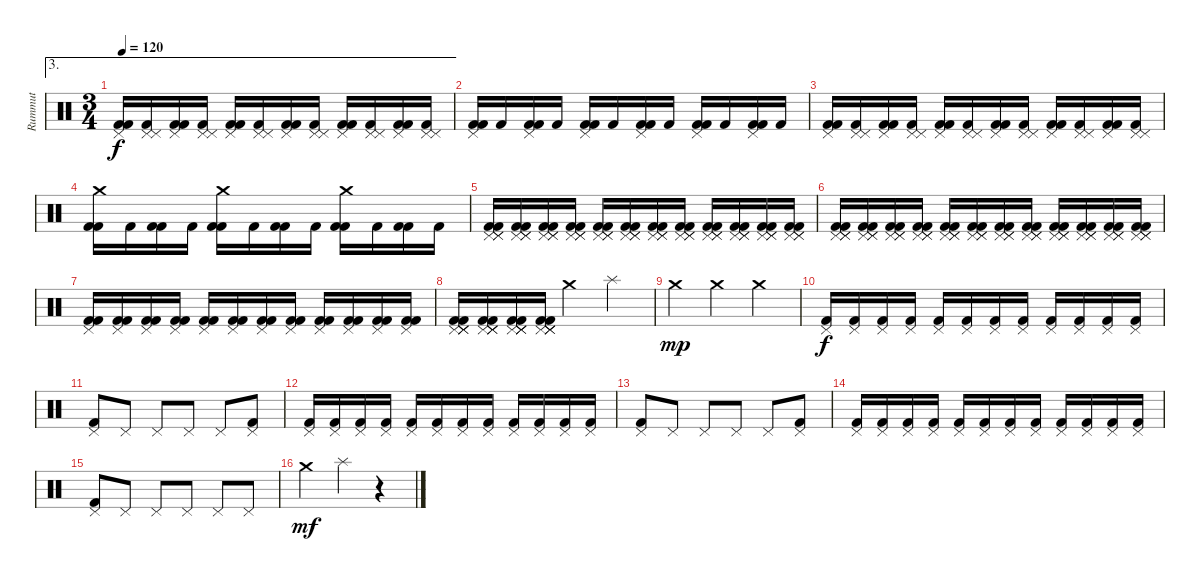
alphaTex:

\track ("Rummut" "Rummut") {instrument percussion}
\staff {score}
\articulation defaults
\ae 3
\ts (3 4)
\tempo 120
\clef neutral
\ks c
("Pedal Hi-Hat (hit)" "Kick (hit) 2" "Kick (hit) 2").16{dy f} ("Pedal Hi-Hat (hit)" "Pedal Hi-Hat (hit)" "Kick (hit) 2").16 ("Pedal Hi-Hat (hit)" "Kick (hit) 2" "Kick (hit) 2").16 ("Pedal Hi-Hat (hit)" "Pedal Hi-Hat (hit)" "Kick (hit) 2").16 ("Pedal Hi-Hat (hit)" "Kick (hit) 2" "Kick (hit) 2").16 ("Pedal Hi-Hat (hit)" "Pedal Hi-Hat (hit)" "Kick (hit) 2").16 ("Pedal Hi-Hat (hit)" "Kick (hit) 2" "Kick (hit) 2").16 ("Pedal Hi-Hat (hit)" "Pedal Hi-Hat (hit)" "Kick (hit) 2").16 ("Pedal Hi-Hat (hit)" "Kick (hit) 2" "Kick (hit) 2").16 ("Pedal Hi-Hat (hit)" "Pedal Hi-Hat (hit)" "Kick (hit) 2").16 ("Pedal Hi-Hat (hit)" "Kick (hit) 2" "Kick (hit) 2").16 ("Pedal Hi-Hat (hit)" "Pedal Hi-Hat (hit)" "Kick (hit) 2").16 |
("Pedal Hi-Hat (hit)" "Kick (hit) 2" "Kick (hit) 2").16 "Kick (hit) 2".16 ("Pedal Hi-Hat (hit)" "Kick (hit) 2" "Kick (hit) 2").16 "Kick (hit) 2".16 ("Pedal Hi-Hat (hit)" "Kick (hit) 2" "Kick (hit) 2").16 "Kick (hit) 2".16 ("Pedal Hi-Hat (hit)" "Kick (hit) 2" "Kick (hit) 2").16 "Kick (hit) 2".16 ("Pedal Hi-Hat (hit)" "Kick (hit) 2" "Kick (hit) 2").16 "Kick (hit) 2".16 ("Pedal Hi-Hat (hit)" "Kick (hit) 2" "Kick (hit) 2").16 "Kick (hit) 2".16 |
("Pedal Hi-Hat (hit)" "Kick (hit) 2" "Kick (hit) 2").16 ("Pedal Hi-Hat (hit)" "Pedal Hi-Hat (hit)" "Kick (hit) 2").16 ("Pedal Hi-Hat (hit)" "Kick (hit) 2" "Kick (hit) 2").16 ("Pedal Hi-Hat (hit)" "Pedal Hi-Hat (hit)" "Kick (hit) 2").16 ("Pedal Hi-Hat (hit)" "Kick (hit) 2" "Kick (hit) 2").16 ("Pedal Hi-Hat (hit)" "Pedal Hi-Hat (hit)" "Kick (hit) 2").16 ("Pedal Hi-Hat (hit)" "Kick (hit) 2" "Kick (hit) 2").16 ("Pedal Hi-Hat (hit)" "Pedal Hi-Hat (hit)" "Kick (hit) 2").16 ("Pedal Hi-Hat (hit)" "Kick (hit) 2" "Kick (hit) 2").16 ("Pedal Hi-Hat (hit)" "Pedal Hi-Hat (hit)" "Kick (hit) 2").16 ("Pedal Hi-Hat (hit)" "Kick (hit) 2" "Kick (hit) 2").16 ("Pedal Hi-Hat (hit)" "Pedal Hi-Hat (hit)" "Kick (hit) 2").16 |
("Crash medium (hit)" "Kick (hit) 2" "Kick (hit) 2").16 "Kick (hit) 2".16 ("Kick (hit) 2" "Kick (hit) 2").16 "Kick (hit) 2".16 ("Crash medium (hit)" "Kick (hit) 2" "Kick (hit) 2").16 "Kick (hit) 2".16 ("Kick (hit) 2" "Kick (hit) 2").16 "Kick (hit) 2".16 ("Crash medium (hit)" "Kick (hit) 2" "Kick (hit) 2").16 "Kick (hit) 2".16 ("Kick (hit) 2" "Kick (hit) 2").16 "Kick (hit) 2".16 |
("Pedal Hi-Hat (hit)" "Pedal Hi-Hat (hit)" "Pedal Hi-Hat (hit)" "Kick (hit) 2" "Kick (hit) 2").16 ("Pedal Hi-Hat (hit)" "Pedal Hi-Hat (hit)" "Pedal Hi-Hat (hit)" "Kick (hit) 2" "Kick (hit) 2").16 ("Pedal Hi-Hat (hit)" "Pedal Hi-Hat (hit)" "Pedal Hi-Hat (hit)" "Kick (hit) 2" "Kick (hit) 2").16 ("Pedal Hi-Hat (hit)" "Pedal Hi-Hat (hit)" "Pedal Hi-Hat (hit)" "Kick (hit) 2" "Kick (hit) 2").16 ("Pedal Hi-Hat (hit)" "Pedal Hi-Hat (hit)" "Pedal Hi-Hat (hit)" "Kick (hit) 2" "Kick (hit) 2").16 ("Pedal Hi-Hat (hit)" "Pedal Hi-Hat (hit)" "Pedal Hi-Hat (hit)" "Kick (hit) 2" "Kick (hit) 2").16 ("Pedal Hi-Hat (hit)" "Pedal Hi-Hat (hit)" "Pedal Hi-Hat (hit)" "Kick (hit) 2" "Kick (hit) 2").16 ("Pedal Hi-Hat (hit)" "Pedal Hi-Hat (hit)" "Pedal Hi-Hat (hit)" "Kick (hit) 2" "Kick (hit) 2").16 ("Pedal Hi-Hat (hit)" "Pedal Hi-Hat (hit)" "Pedal Hi-Hat (hit)" "Kick (hit) 2" "Kick (hit) 2").16 ("Pedal Hi-Hat (hit)" "Pedal Hi-Hat (hit)" "Pedal Hi-Hat (hit)" "Kick (hit) 2" "Kick (hit) 2").16 ("Pedal Hi-Hat (hit)" "Pedal Hi-Hat (hit)" "Pedal Hi-Hat (hit)" "Kick (hit) 2" "Kick (hit) 2").16 ("Pedal Hi-Hat (hit)" "Pedal Hi-Hat (hit)" "Pedal Hi-Hat (hit)" "Kick (hit) 2" "Kick (hit) 2").16 |
("Pedal Hi-Hat (hit)" "Pedal Hi-Hat (hit)" "Pedal Hi-Hat (hit)" "Kick (hit) 2" "Kick (hit) 2").16 ("Pedal Hi-Hat (hit)" "Pedal Hi-Hat (hit)" "Pedal Hi-Hat (hit)" "Kick (hit) 2" "Kick (hit) 2").16 ("Pedal Hi-Hat (hit)" "Pedal Hi-Hat (hit)" "Pedal Hi-Hat (hit)" "Kick (hit) 2" "Kick (hit) 2").16 ("Pedal Hi-Hat (hit)" "Pedal Hi-Hat (hit)" "Pedal Hi-Hat (hit)" "Kick (hit) 2" "Kick (hit) 2").16 ("Pedal Hi-Hat (hit)" "Pedal Hi-Hat (hit)" "Pedal Hi-Hat (hit)" "Kick (hit) 2" "Kick (hit) 2").16 ("Pedal Hi-Hat (hit)" "Pedal Hi-Hat (hit)" "Pedal Hi-Hat (hit)" "Kick (hit) 2" "Kick (hit) 2").16 ("Pedal Hi-Hat (hit)" "Pedal Hi-Hat (hit)" "Pedal Hi-Hat (hit)" "Kick (hit) 2" "Kick (hit) 2").16 ("Pedal Hi-Hat (hit)" "Pedal Hi-Hat (hit)" "Pedal Hi-Hat (hit)" "Kick (hit) 2" "Kick (hit) 2").16 ("Pedal Hi-Hat (hit)" "Pedal Hi-Hat (hit)" "Pedal Hi-Hat (hit)" "Kick (hit) 2" "Kick (hit) 2").16 ("Pedal Hi-Hat (hit)" "Pedal Hi-Hat (hit)" "Pedal Hi-Hat (hit)" "Kick (hit) 2" "Kick (hit) 2").16 ("Pedal Hi-Hat (hit)" "Pedal Hi-Hat (hit)" "Pedal Hi-Hat (hit)" "Kick (hit) 2" "Kick (hit) 2").16 ("Pedal Hi-Hat (hit)" "Pedal Hi-Hat (hit)" "Pedal Hi-Hat (hit)" "Kick (hit) 2" "Kick (hit) 2").16 |
("Pedal Hi-Hat (hit)" "Kick (hit) 2" "Kick (hit) 2").16 ("Pedal Hi-Hat (hit)" "Kick (hit) 2" "Kick (hit) 2").16 ("Pedal Hi-Hat (hit)" "Kick (hit) 2" "Kick (hit) 2").16 ("Pedal Hi-Hat (hit)" "Kick (hit) 2" "Kick (hit) 2").16 ("Pedal Hi-Hat (hit)" "Kick (hit) 2" "Kick (hit) 2").16 ("Pedal Hi-Hat (hit)" "Kick (hit) 2" "Kick (hit) 2").16 ("Pedal Hi-Hat (hit)" "Kick (hit) 2" "Kick (hit) 2").16 ("Pedal Hi-Hat (hit)" "Kick (hit) 2" "Kick (hit) 2").16 ("Pedal Hi-Hat (hit)" "Kick (hit) 2" "Kick (hit) 2").16 ("Pedal Hi-Hat (hit)" "Kick (hit) 2" "Kick (hit) 2").16 ("Pedal Hi-Hat (hit)" "Kick (hit) 2" "Kick (hit) 2").16 ("Pedal Hi-Hat (hit)" "Kick (hit) 2" "Kick (hit) 2").16 |
("Pedal Hi-Hat (hit)" "Pedal Hi-Hat (hit)" "Pedal Hi-Hat (hit)" "Pedal Hi-Hat (hit)" "Kick (hit) 2" "Kick (hit) 2").16 ("Pedal Hi-Hat (hit)" "Pedal Hi-Hat (hit)" "Pedal Hi-Hat (hit)" "Pedal Hi-Hat (hit)" "Kick (hit) 2" "Kick (hit) 2").16 ("Pedal Hi-Hat (hit)" "Pedal Hi-Hat (hit)" "Pedal Hi-Hat (hit)" "Pedal Hi-Hat (hit)" "Kick (hit) 2" "Kick (hit) 2").16 ("Pedal Hi-Hat (hit)" "Pedal Hi-Hat (hit)" "Pedal Hi-Hat (hit)" "Pedal Hi-Hat (hit)" "Kick (hit) 2" "Kick (hit) 2").16 "Crash medium (hit)".4 "Splash (hit)".4 |
"Crash medium (hit)".4{dy mp} "Crash medium (hit)".4 "Crash medium (hit)".4 |
("Pedal Hi-Hat (hit)" "Kick (hit) 2").16{dy f} ("Pedal Hi-Hat (hit)" "Kick (hit) 2").16 ("Pedal Hi-Hat (hit)" "Kick (hit) 2").16 ("Pedal Hi-Hat (hit)" "Kick (hit) 2").16 ("Pedal Hi-Hat (hit)" "Kick (hit) 2").16 ("Pedal Hi-Hat (hit)" "Kick (hit) 2").16 ("Pedal Hi-Hat (hit)" "Kick (hit) 2").16 ("Pedal Hi-Hat (hit)" "Kick (hit) 2").16 ("Pedal Hi-Hat (hit)" "Kick (hit) 2").16 ("Pedal Hi-Hat (hit)" "Kick (hit) 2").16 ("Pedal Hi-Hat (hit)" "Kick (hit) 2").16 ("Pedal Hi-Hat (hit)" "Kick (hit) 2").16 |
("Pedal Hi-Hat (hit)" "Kick (hit) 2").8 "Pedal Hi-Hat (hit)".8 "Pedal Hi-Hat (hit)".8 "Pedal Hi-Hat (hit)".8 "Pedal Hi-Hat (hit)".8 ("Pedal Hi-Hat (hit)" "Kick (hit) 2").8 |
("Pedal Hi-Hat (hit)" "Kick (hit) 2").16 ("Pedal Hi-Hat (hit)" "Kick (hit) 2").16 ("Pedal Hi-Hat (hit)" "Kick (hit) 2").16 ("Pedal Hi-Hat (hit)" "Kick (hit) 2").16 ("Pedal Hi-Hat (hit)" "Kick (hit) 2").16 ("Pedal Hi-Hat (hit)" "Kick (hit) 2").16 ("Pedal Hi-Hat (hit)" "Kick (hit) 2").16 ("Pedal Hi-Hat (hit)" "Kick (hit) 2").16 ("Pedal Hi-Hat (hit)" "Kick (hit) 2").16 ("Pedal Hi-Hat (hit)" "Kick (hit) 2").16 ("Pedal Hi-Hat (hit)" "Kick (hit) 2").16 ("Pedal Hi-Hat (hit)" "Kick (hit) 2").16 |
("Pedal Hi-Hat (hit)" "Kick (hit) 2").8 "Pedal Hi-Hat (hit)".8 "Pedal Hi-Hat (hit)".8 "Pedal Hi-Hat (hit)".8 "Pedal Hi-Hat (hit)".8 ("Pedal Hi-Hat (hit)" "Kick (hit) 2").8 |
("Pedal Hi-Hat (hit)" "Kick (hit) 2").16 ("Pedal Hi-Hat (hit)" "Kick (hit) 2").16 ("Pedal Hi-Hat (hit)" "Kick (hit) 2").16 ("Pedal Hi-Hat (hit)" "Kick (hit) 2").16 ("Pedal Hi-Hat (hit)" "Kick (hit) 2").16 ("Pedal Hi-Hat (hit)" "Kick (hit) 2").16 ("Pedal Hi-Hat (hit)" "Kick (hit) 2").16 ("Pedal Hi-Hat (hit)" "Kick (hit) 2").16 ("Pedal Hi-Hat (hit)" "Kick (hit) 2").16 ("Pedal Hi-Hat (hit)" "Kick (hit) 2").16 ("Pedal Hi-Hat (hit)" "Kick (hit) 2").16 ("Pedal Hi-Hat (hit)" "Kick (hit) 2").16 |
("Pedal Hi-Hat (hit)" "Kick (hit) 2").8 "Pedal Hi-Hat (hit)".8 "Pedal Hi-Hat (hit)".8 "Pedal Hi-Hat (hit)".8 "Pedal Hi-Hat (hit)".8 "Pedal Hi-Hat (hit)".8 |
"Crash medium (hit)".4{dy mf} "Splash (hit)".4 r.4
